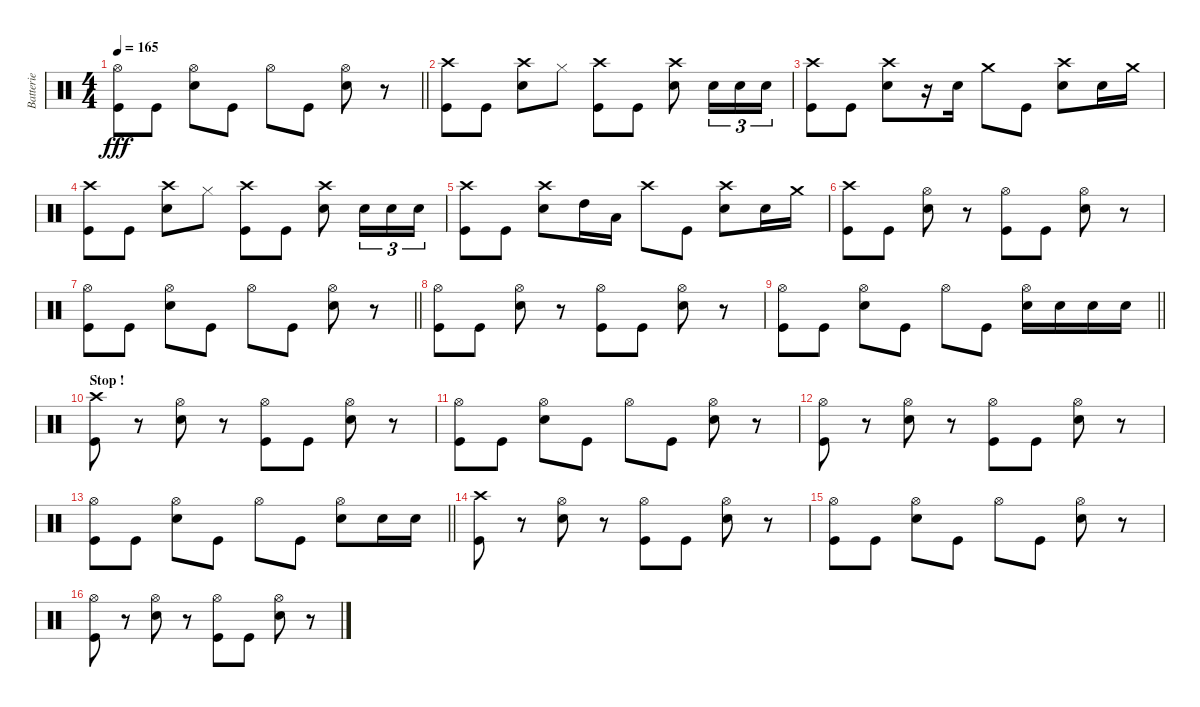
\track ("Batterie" "Batterie") {instrument percussion}
\staff {score}
\articulation defaults
\ts (4 4)
\tempo 165
\clef neutral
\barLineRight lightlight
\ks c
("Hi-Hat (open)" "Kick (hit)").8{dy fff} "Kick (hit)".8 ("Hi-Hat (open)" "Electric Snare (hit)").8 "Kick (hit)".8 "Hi-Hat (open)".8 "Kick (hit)".8 ("Hi-Hat (open)" "Electric Snare (hit)").8 r.8 |
("Crash high (hit)" "Kick (hit)").8 "Kick (hit)".8 ("Crash high (hit)" "Electric Snare (hit)").8 "Hi-Hat (closed)".8 ("Crash high (hit)" "Kick (hit)").8 "Kick (hit)".8 ("Crash high (hit)" "Electric Snare (hit)").8 "Electric Snare (hit)".16{tu (3 2)} "Electric Snare (hit)".16{tu (3 2)} "Electric Snare (hit)".16{tu (3 2)} |
("Crash high (hit)" "Kick (hit)").8 "Kick (hit)".8 ("Crash high (hit)" "Electric Snare (hit)").8 r.16 "Snare (hit) 2".16 "Crash medium (hit)".8 "Kick (hit)".8 ("Crash high (hit)" "Electric Snare (hit)").8 "Snare (hit) 2".16 "Crash medium (hit)".16 |
("Crash high (hit)" "Kick (hit)").8 "Kick (hit)".8 ("Crash high (hit)" "Electric Snare (hit)").8 "Hi-Hat (closed)".8 ("Crash high (hit)" "Kick (hit)").8 "Kick (hit)".8 ("Crash high (hit)" "Electric Snare (hit)").8 "Electric Snare (hit)".16{tu (3 2)} "Electric Snare (hit)".16{tu (3 2)} "Electric Snare (hit)".16{tu (3 2)} |
("Crash high (hit)" "Kick (hit)").8 "Kick (hit)".8 ("Crash high (hit)" "Electric Snare (hit)").8 "High Tom (hit)".16 "Low Tom (hit)".16 "Crash high (hit)".8 "Kick (hit)".8 ("Crash high (hit)" "Electric Snare (hit)").8 "Snare (hit) 2".16 "Crash medium (hit)".16 |
("Crash high (hit)" "Kick (hit)").8 "Kick (hit)".8 ("Hi-Hat (open)" "Electric Snare (hit)").8 r.8 ("Hi-Hat (open)" "Kick (hit)").8 "Kick (hit)".8 ("Hi-Hat (open)" "Electric Snare (hit)").8 r.8 |
\barLineRight lightlight
("Hi-Hat (open)" "Kick (hit)").8 "Kick (hit)".8 ("Hi-Hat (open)" "Electric Snare (hit)").8 "Kick (hit)".8 "Hi-Hat (open)".8 "Kick (hit)".8 ("Hi-Hat (open)" "Electric Snare (hit)").8 r.8 |
("Hi-Hat (open)" "Kick (hit)").8 "Kick (hit)".8 ("Hi-Hat (open)" "Electric Snare (hit)").8 r.8 ("Hi-Hat (open)" "Kick (hit)").8 "Kick (hit)".8 ("Hi-Hat (open)" "Electric Snare (hit)").8 r.8 |
\barLineRight lightlight
("Hi-Hat (open)" "Kick (hit)").8 "Kick (hit)".8 ("Hi-Hat (open)" "Electric Snare (hit)").8 "Kick (hit)".8 "Hi-Hat (open)".8 "Kick (hit)".8 ("Hi-Hat (open)" "Electric Snare (hit)").16 "Electric Snare (hit)".16 "Electric Snare (hit)".16 "Electric Snare (hit)".16 |
\section ("" "Stop !")
("Crash high (hit)" "Kick (hit)").8 r.8 ("Hi-Hat (open)" "Electric Snare (hit)").8 r.8 ("Hi-Hat (open)" "Kick (hit)").8 "Kick (hit)".8 ("Hi-Hat (open)" "Electric Snare (hit)").8 r.8 |
("Hi-Hat (open)" "Kick (hit)").8 "Kick (hit)".8 ("Hi-Hat (open)" "Electric Snare (hit)").8 "Kick (hit)".8 "Hi-Hat (open)".8 "Kick (hit)".8 ("Hi-Hat (open)" "Electric Snare (hit)").8 r.8 |
("Hi-Hat (open)" "Kick (hit)").8 r.8 ("Hi-Hat (open)" "Electric Snare (hit)").8 r.8 ("Hi-Hat (open)" "Kick (hit)").8 "Kick (hit)".8 ("Hi-Hat (open)" "Electric Snare (hit)").8 r.8 |
\barLineRight lightlight
("Hi-Hat (open)" "Kick (hit)").8 "Kick (hit)".8 ("Hi-Hat (open)" "Electric Snare (hit)").8 "Kick (hit)".8 "Hi-Hat (open)".8 "Kick (hit)".8 ("Hi-Hat (open)" "Electric Snare (hit)").8 "Electric Snare (hit)".16 "Electric Snare (hit)".16 |
("Crash high (hit)" "Kick (hit)").8 r.8 ("Hi-Hat (open)" "Electric Snare (hit)").8 r.8 ("Hi-Hat (open)" "Kick (hit)").8 "Kick (hit)".8 ("Hi-Hat (open)" "Electric Snare (hit)").8 r.8 |
("Hi-Hat (open)" "Kick (hit)").8 "Kick (hit)".8 ("Hi-Hat (open)" "Electric Snare (hit)").8 "Kick (hit)".8 "Hi-Hat (open)".8 "Kick (hit)".8 ("Hi-Hat (open)" "Electric Snare (hit)").8 r.8 |
("Hi-Hat (open)" "Kick (hit)").8 r.8 ("Hi-Hat (open)" "Electric Snare (hit)").8 r.8 ("Hi-Hat (open)" "Kick (hit)").8 "Kick (hit)".8 ("Hi-Hat (open)" "Electric Snare (hit)").8 r.8
